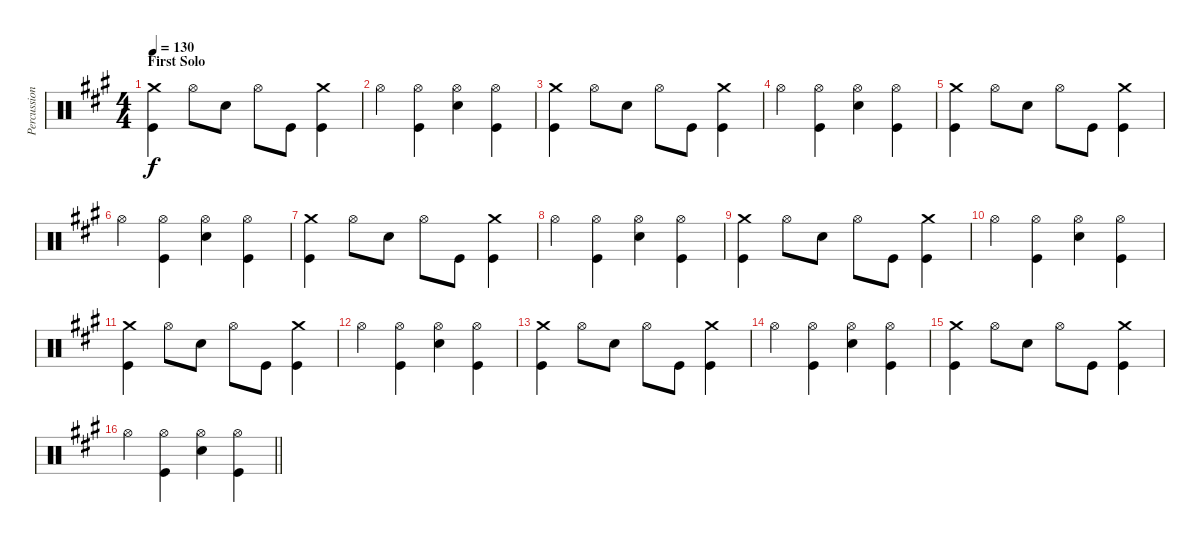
\track ("Percussion" "Percussion") {instrument percussion}
\staff {score}
\articulation defaults
\ts (4 4)
\section ("" "First Solo")
\tempo 130
\clef neutral
\ks a
("Crash medium (hit)" "Kick (hit)").4{dy f} "Hi-Hat (open)".8 "Snare (hit) 2".8 "Hi-Hat (open)".8 "Kick (hit)".8 ("Crash medium (hit)" "Kick (hit)").4 |
"Hi-Hat (open)".4 ("Hi-Hat (open)" "Kick (hit)").4 ("Hi-Hat (open)" "Snare (hit) 2").4 ("Hi-Hat (open)" "Kick (hit)").4 |
("Crash medium (hit)" "Kick (hit)").4 "Hi-Hat (open)".8 "Snare (hit) 2".8 "Hi-Hat (open)".8 "Kick (hit)".8 ("Crash medium (hit)" "Kick (hit)").4 |
"Hi-Hat (open)".4 ("Hi-Hat (open)" "Kick (hit)").4 ("Hi-Hat (open)" "Snare (hit) 2").4 ("Hi-Hat (open)" "Kick (hit)").4 |
("Crash medium (hit)" "Kick (hit)").4 "Hi-Hat (open)".8 "Snare (hit) 2".8 "Hi-Hat (open)".8 "Kick (hit)".8 ("Crash medium (hit)" "Kick (hit)").4 |
"Hi-Hat (open)".4 ("Hi-Hat (open)" "Kick (hit)").4 ("Hi-Hat (open)" "Snare (hit) 2").4 ("Hi-Hat (open)" "Kick (hit)").4 |
("Crash medium (hit)" "Kick (hit)").4 "Hi-Hat (open)".8 "Snare (hit) 2".8 "Hi-Hat (open)".8 "Kick (hit)".8 ("Crash medium (hit)" "Kick (hit)").4 |
"Hi-Hat (open)".4 ("Hi-Hat (open)" "Kick (hit)").4 ("Hi-Hat (open)" "Snare (hit) 2").4 ("Hi-Hat (open)" "Kick (hit)").4 |
("Crash medium (hit)" "Kick (hit)").4 "Hi-Hat (open)".8 "Snare (hit) 2".8 "Hi-Hat (open)".8 "Kick (hit)".8 ("Crash medium (hit)" "Kick (hit)").4 |
"Hi-Hat (open)".4 ("Hi-Hat (open)" "Kick (hit)").4 ("Hi-Hat (open)" "Snare (hit) 2").4 ("Hi-Hat (open)" "Kick (hit)").4 |
("Crash medium (hit)" "Kick (hit)").4 "Hi-Hat (open)".8 "Snare (hit) 2".8 "Hi-Hat (open)".8 "Kick (hit)".8 ("Crash medium (hit)" "Kick (hit)").4 |
"Hi-Hat (open)".4 ("Hi-Hat (open)" "Kick (hit)").4 ("Hi-Hat (open)" "Snare (hit) 2").4 ("Hi-Hat (open)" "Kick (hit)").4 |
("Crash medium (hit)" "Kick (hit)").4 "Hi-Hat (open)".8 "Snare (hit) 2".8 "Hi-Hat (open)".8 "Kick (hit)".8 ("Crash medium (hit)" "Kick (hit)").4 |
"Hi-Hat (open)".4 ("Hi-Hat (open)" "Kick (hit)").4 ("Hi-Hat (open)" "Snare (hit) 2").4 ("Hi-Hat (open)" "Kick (hit)").4 |
("Crash medium (hit)" "Kick (hit)").4 "Hi-Hat (open)".8 "Snare (hit) 2".8 "Hi-Hat (open)".8 "Kick (hit)".8 ("Crash medium (hit)" "Kick (hit)").4 |
\barLineRight lightlight "Hi-Hat (open)".4
("Hi-Hat (open)" "Kick (hit)").4 ("Hi-Hat (open)" "Snare (hit) 2").4 ("Hi-Hat (open)" "Kick (hit)").4
